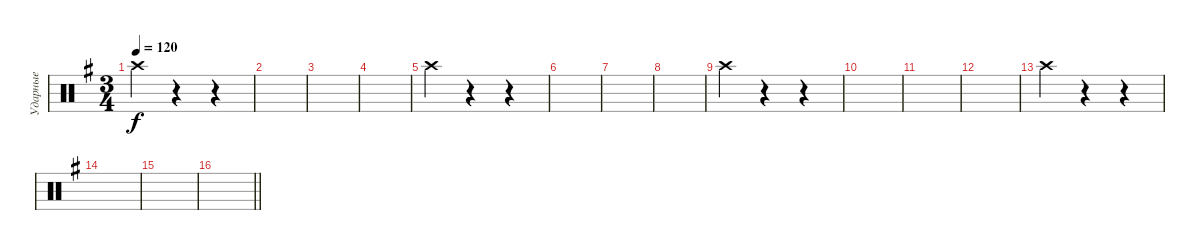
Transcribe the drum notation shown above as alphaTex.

\track ("Ударные" "Ударные") {instrument percussion}
\staff {score}
\articulation defaults
\ts (3 4)
\tempo 120
\clef neutral
\ks g "Crash high (hit)".4{dy f}
r.4 r.4 |
|
|
|
"Crash high (hit)".4 r.4 r.4 |
|
|
|
"Crash high (hit)".4 r.4 r.4 |
|
|
|
"Crash high (hit)".4 r.4 r.4 |
|
|
\barLineRight lightlight
